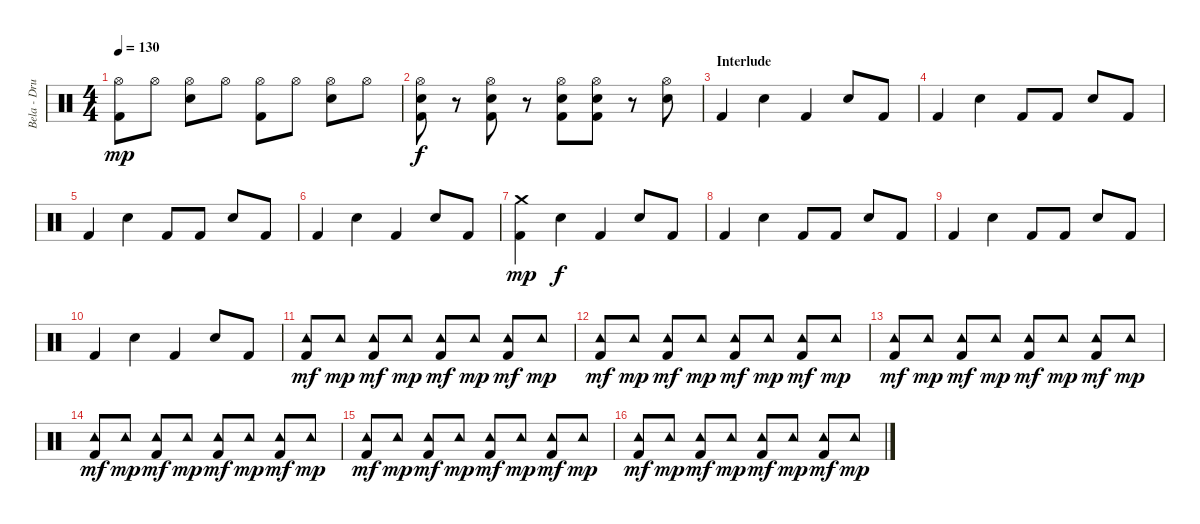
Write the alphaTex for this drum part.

\track ("Bela - Drums" "Bela - Dru") {instrument percussion}
\staff {score}
\articulation defaults
\ts (4 4)
\tempo 130
\clef neutral
\ks c
("Hi-Hat (open)" "Kick (hit) 2").8{dy mp} "Hi-Hat (open)".8 ("Hi-Hat (open)" "Snare (hit) 2").8 "Hi-Hat (open)".8 ("Hi-Hat (open)" "Kick (hit) 2").8 "Hi-Hat (open)".8 ("Hi-Hat (open)" "Snare (hit) 2").8 "Hi-Hat (open)".8 |
("Hi-Hat (open)" "Snare (hit) 2" "Kick (hit) 2").8{dy f} r.8 ("Hi-Hat (open)" "Snare (hit) 2" "Kick (hit) 2").8 r.8 ("Hi-Hat (open)" "Snare (hit) 2" "Kick (hit) 2").8 ("Hi-Hat (open)" "Snare (hit) 2" "Kick (hit) 2").8 r.8 ("Hi-Hat (open)" "Snare (hit) 2").8 |
\section ("" "Interlude")
"Kick (hit) 2".4 "Snare (hit) 2".4 "Kick (hit) 2".4 "Snare (hit) 2".8 "Kick (hit) 2".8 |
"Kick (hit) 2".4 "Snare (hit) 2".4 "Kick (hit) 2".8 "Kick (hit) 2".8 "Snare (hit) 2".8 "Kick (hit) 2".8 |
"Kick (hit) 2".4 "Snare (hit) 2".4 "Kick (hit) 2".8 "Kick (hit) 2".8 "Snare (hit) 2".8 "Kick (hit) 2".8 |
"Kick (hit) 2".4 "Snare (hit) 2".4 "Kick (hit) 2".4 "Snare (hit) 2".8 "Kick (hit) 2".8 |
("Crash medium (hit)" "Kick (hit) 2").4{dy mp} "Snare (hit) 2".4{dy f} "Kick (hit) 2".4 "Snare (hit) 2".8 "Kick (hit) 2".8 |
"Kick (hit) 2".4 "Snare (hit) 2".4 "Kick (hit) 2".8 "Kick (hit) 2".8 "Snare (hit) 2".8 "Kick (hit) 2".8 |
"Kick (hit) 2".4 "Snare (hit) 2".4 "Kick (hit) 2".8 "Kick (hit) 2".8 "Snare (hit) 2".8 "Kick (hit) 2".8 |
"Kick (hit) 2".4 "Snare (hit) 2".4 "Kick (hit) 2".4 "Snare (hit) 2".8 "Kick (hit) 2".8 |
("Tambourine (hit)" "Kick (hit) 2").8{dy mf} "Tambourine (hit)".8{dy mp} ("Tambourine (hit)" "Kick (hit) 2").8{dy mf} "Tambourine (hit)".8{dy mp} ("Tambourine (hit)" "Kick (hit) 2").8{dy mf} "Tambourine (hit)".8{dy mp} ("Tambourine (hit)" "Kick (hit) 2").8{dy mf} "Tambourine (hit)".8{dy mp} |
("Tambourine (hit)" "Kick (hit) 2").8{dy mf} "Tambourine (hit)".8{dy mp} ("Tambourine (hit)" "Kick (hit) 2").8{dy mf} "Tambourine (hit)".8{dy mp} ("Tambourine (hit)" "Kick (hit) 2").8{dy mf} "Tambourine (hit)".8{dy mp} ("Tambourine (hit)" "Kick (hit) 2").8{dy mf} "Tambourine (hit)".8{dy mp} |
("Tambourine (hit)" "Kick (hit) 2").8{dy mf} "Tambourine (hit)".8{dy mp} ("Tambourine (hit)" "Kick (hit) 2").8{dy mf} "Tambourine (hit)".8{dy mp} ("Tambourine (hit)" "Kick (hit) 2").8{dy mf} "Tambourine (hit)".8{dy mp} ("Tambourine (hit)" "Kick (hit) 2").8{dy mf} "Tambourine (hit)".8{dy mp} |
("Tambourine (hit)" "Kick (hit) 2").8{dy mf} "Tambourine (hit)".8{dy mp} ("Tambourine (hit)" "Kick (hit) 2").8{dy mf} "Tambourine (hit)".8{dy mp} ("Tambourine (hit)" "Kick (hit) 2").8{dy mf} "Tambourine (hit)".8{dy mp} ("Tambourine (hit)" "Kick (hit) 2").8{dy mf} "Tambourine (hit)".8{dy mp} |
("Tambourine (hit)" "Kick (hit) 2").8{dy mf} "Tambourine (hit)".8{dy mp} ("Tambourine (hit)" "Kick (hit) 2").8{dy mf} "Tambourine (hit)".8{dy mp} ("Tambourine (hit)" "Kick (hit) 2").8{dy mf} "Tambourine (hit)".8{dy mp} ("Tambourine (hit)" "Kick (hit) 2").8{dy mf} "Tambourine (hit)".8{dy mp} |
("Tambourine (hit)" "Kick (hit) 2").8{dy mf} "Tambourine (hit)".8{dy mp} ("Tambourine (hit)" "Kick (hit) 2").8{dy mf} "Tambourine (hit)".8{dy mp} ("Tambourine (hit)" "Kick (hit) 2").8{dy mf} "Tambourine (hit)".8{dy mp} ("Tambourine (hit)" "Kick (hit) 2").8{dy mf} "Tambourine (hit)".8{dy mp}
